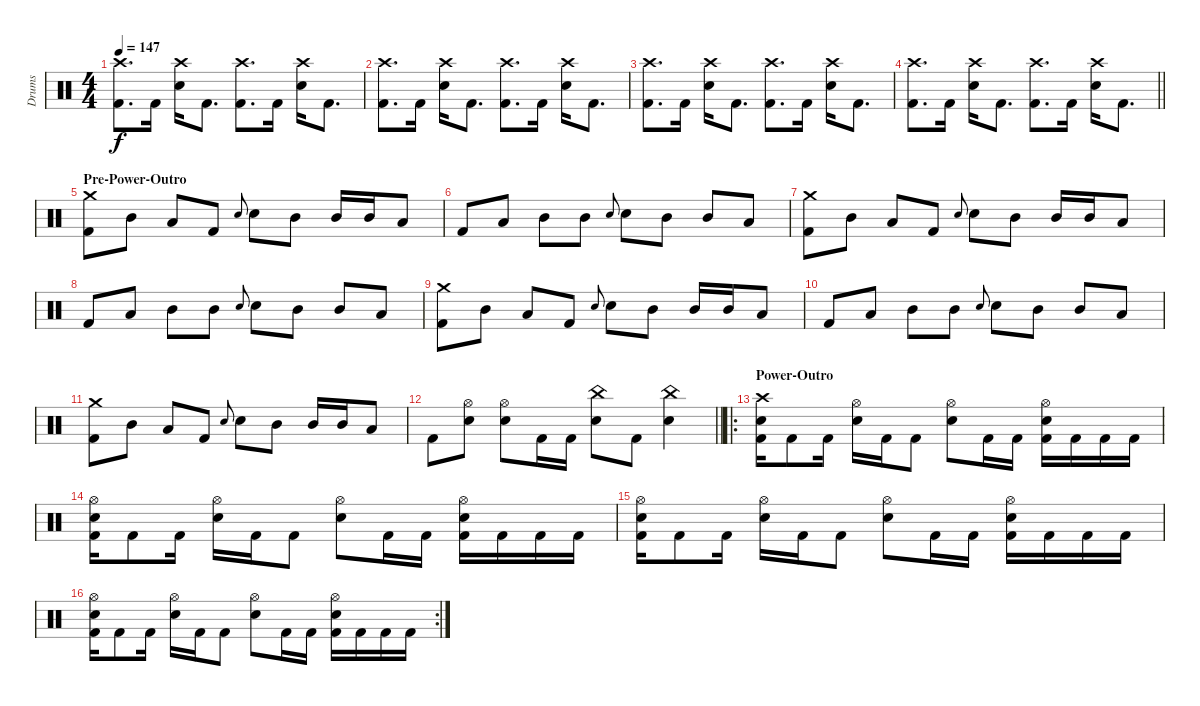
\track ("Drums" "Drums") {instrument percussion}
\staff {score}
\articulation defaults
\ts (4 4)
\tempo 147
\clef neutral
\ks c
("Crash high (hit)" "Kick (hit) 2").8{d dy f} "Kick (hit) 2".16 ("Crash high (hit)" "Electric Snare (hit)").16 "Kick (hit) 2".8{d} ("Crash high (hit)" "Kick (hit) 2").8{d} "Kick (hit) 2".16 ("Crash high (hit)" "Electric Snare (hit)").16 "Kick (hit) 2".8{d} |
("Crash high (hit)" "Kick (hit) 2").8{d} "Kick (hit) 2".16 ("Crash high (hit)" "Electric Snare (hit)").16 "Kick (hit) 2".8{d} ("Crash high (hit)" "Kick (hit) 2").8{d} "Kick (hit) 2".16 ("Crash high (hit)" "Electric Snare (hit)").16 "Kick (hit) 2".8{d} |
("Crash high (hit)" "Kick (hit) 2").8{d} "Kick (hit) 2".16 ("Crash high (hit)" "Electric Snare (hit)").16 "Kick (hit) 2".8{d} ("Crash high (hit)" "Kick (hit) 2").8{d} "Kick (hit) 2".16 ("Crash high (hit)" "Electric Snare (hit)").16 "Kick (hit) 2".8{d} |
\barLineRight lightlight
("Crash high (hit)" "Kick (hit) 2").8{d} "Kick (hit) 2".16 ("Crash high (hit)" "Electric Snare (hit)").16 "Kick (hit) 2".8{d} ("Crash high (hit)" "Kick (hit) 2").8{d} "Kick (hit) 2".16 ("Crash high (hit)" "Electric Snare (hit)").16 "Kick (hit) 2".8{d} |
\section ("" "Pre-Power-Outro")
("Crash medium (hit)" "Kick (hit) 2").8 "Mid Tom (hit)".8 "Low Tom (hit)".8 "Kick (hit) 2".8 "Electric Snare (hit)".8{gr onbeat} "Electric Snare (hit)".8 "Mid Tom (hit)".8 "Mid Tom (hit)".16 "Mid Tom (hit)".16 "Low Tom (hit)".8 |
"Kick (hit) 2".8 "Low Tom (hit)".8 "Mid Tom (hit)".8 "Mid Tom (hit)".8 "Electric Snare (hit)".8{gr onbeat} "Electric Snare (hit)".8 "Mid Tom (hit)".8 "Mid Tom (hit)".8 "Low Tom (hit)".8 |
("Crash medium (hit)" "Kick (hit) 2").8 "Mid Tom (hit)".8 "Low Tom (hit)".8 "Kick (hit) 2".8 "Electric Snare (hit)".8{gr onbeat} "Electric Snare (hit)".8 "Mid Tom (hit)".8 "Mid Tom (hit)".16 "Mid Tom (hit)".16 "Low Tom (hit)".8 |
"Kick (hit) 2".8 "Low Tom (hit)".8 "Mid Tom (hit)".8 "Mid Tom (hit)".8 "Electric Snare (hit)".8{gr onbeat} "Electric Snare (hit)".8 "Mid Tom (hit)".8 "Mid Tom (hit)".8 "Low Tom (hit)".8 |
("Crash medium (hit)" "Kick (hit) 2").8 "Mid Tom (hit)".8 "Low Tom (hit)".8 "Kick (hit) 2".8 "Electric Snare (hit)".8{gr onbeat} "Electric Snare (hit)".8 "Mid Tom (hit)".8 "Mid Tom (hit)".16 "Mid Tom (hit)".16 "Low Tom (hit)".8 |
"Kick (hit) 2".8 "Low Tom (hit)".8 "Mid Tom (hit)".8 "Mid Tom (hit)".8 "Electric Snare (hit)".8{gr onbeat} "Electric Snare (hit)".8 "Mid Tom (hit)".8 "Mid Tom (hit)".8 "Low Tom (hit)".8 |
("Crash medium (hit)" "Kick (hit) 2").8 "Mid Tom (hit)".8 "Low Tom (hit)".8 "Kick (hit) 2".8 "Electric Snare (hit)".8{gr onbeat} "Electric Snare (hit)".8 "Mid Tom (hit)".8 "Mid Tom (hit)".16 "Mid Tom (hit)".16 "Low Tom (hit)".8 |
\barLineRight lightlight "Kick (hit) 2".8
("Hi-Hat (open)" "Electric Snare (hit)").8 ("Hi-Hat (open)" "Electric Snare (hit)").8 "Kick (hit) 2".16 "Kick (hit) 2".16 ("China (hit)" "Electric Snare (hit)").8 "Kick (hit) 2".8 ("China (hit)" "Electric Snare (hit)").4 |
\ro
\section ("" "Power-Outro")
("Crash high (hit)" "Electric Snare (hit)" "Kick (hit) 2").16 "Kick (hit) 2".8 "Kick (hit) 2".16 ("Hi-Hat (open)" "Electric Snare (hit)").16 "Kick (hit) 2".16 "Kick (hit) 2".8 ("Hi-Hat (open)" "Electric Snare (hit)").8 "Kick (hit) 2".16 "Kick (hit) 2".16 ("Hi-Hat (open)" "Electric Snare (hit)" "Kick (hit) 2").16 "Kick (hit) 2".16 "Kick (hit) 2".16 "Kick (hit) 2".16 |
("Hi-Hat (open)" "Electric Snare (hit)" "Kick (hit) 2").16 "Kick (hit) 2".8 "Kick (hit) 2".16 ("Hi-Hat (open)" "Electric Snare (hit)").16 "Kick (hit) 2".16 "Kick (hit) 2".8 ("Hi-Hat (open)" "Electric Snare (hit)").8 "Kick (hit) 2".16 "Kick (hit) 2".16 ("Hi-Hat (open)" "Electric Snare (hit)" "Kick (hit) 2").16 "Kick (hit) 2".16 "Kick (hit) 2".16 "Kick (hit) 2".16 |
("Hi-Hat (open)" "Electric Snare (hit)" "Kick (hit) 2").16 "Kick (hit) 2".8 "Kick (hit) 2".16 ("Hi-Hat (open)" "Electric Snare (hit)").16 "Kick (hit) 2".16 "Kick (hit) 2".8 ("Hi-Hat (open)" "Electric Snare (hit)").8 "Kick (hit) 2".16 "Kick (hit) 2".16 ("Hi-Hat (open)" "Electric Snare (hit)" "Kick (hit) 2").16 "Kick (hit) 2".16 "Kick (hit) 2".16 "Kick (hit) 2".16 |
\rc 2
("Hi-Hat (open)" "Electric Snare (hit)" "Kick (hit) 2").16 "Kick (hit) 2".8 "Kick (hit) 2".16 ("Hi-Hat (open)" "Electric Snare (hit)").16 "Kick (hit) 2".16 "Kick (hit) 2".8 ("Hi-Hat (open)" "Electric Snare (hit)").8 "Kick (hit) 2".16 "Kick (hit) 2".16 ("Hi-Hat (open)" "Electric Snare (hit)" "Kick (hit) 2").16 "Kick (hit) 2".16 "Kick (hit) 2".16 "Kick (hit) 2".16
